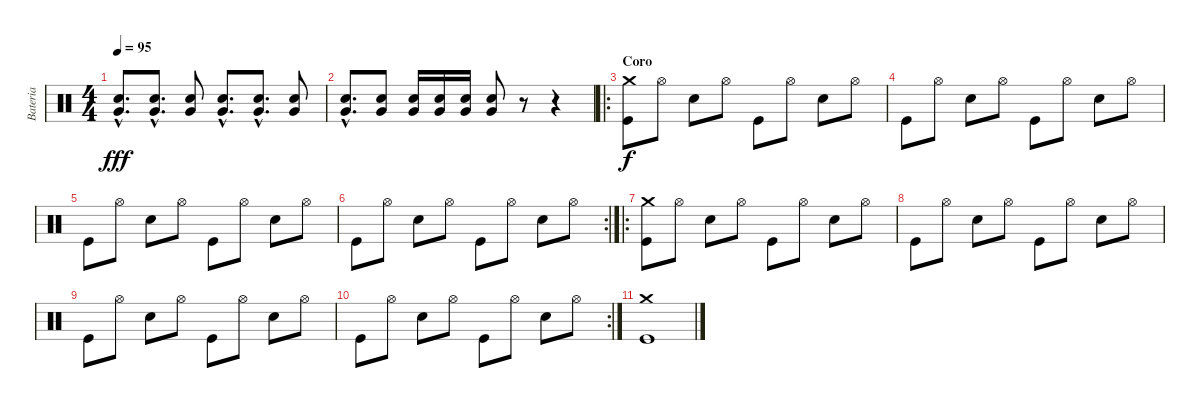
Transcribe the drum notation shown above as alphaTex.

\track ("Bateria" "Bateria") {instrument percussion}
\staff {score}
\articulation defaults
\ts (4 4)
\tempo 95
\clef neutral
\ks c
("Very Low Tom (hit)"{hac} "Electric Snare (hit)"{hac}).8{d dy fff} ("Very Low Tom (hit)"{hac} "Electric Snare (hit)"{hac}).8{d} ("Very Low Tom (hit)" "Electric Snare (hit)").8 ("Very Low Tom (hit)"{hac} "Electric Snare (hit)"{hac}).8{d} ("Very Low Tom (hit)"{hac} "Electric Snare (hit)"{hac}).8{d} ("Very Low Tom (hit)" "Electric Snare (hit)").8 |
("Very Low Tom (hit)"{hac} "Electric Snare (hit)"{hac}).8{d} ("Very Low Tom (hit)" "Electric Snare (hit)").8 ("Very Low Tom (hit)" "Electric Snare (hit)").16 ("Very Low Tom (hit)" "Electric Snare (hit)").16 ("Very Low Tom (hit)" "Electric Snare (hit)").16 ("Very Low Tom (hit)" "Electric Snare (hit)").8 r.8 r.4 |
\ro
\section ("" "Coro")
("Crash medium (hit)" "Kick (hit)").8{dy f} "Hi-Hat (open)".8 "Electric Snare (hit)".8 "Hi-Hat (open)".8 "Kick (hit)".8 "Hi-Hat (open)".8 "Electric Snare (hit)".8 "Hi-Hat (open)".8 |
"Kick (hit)".8 "Hi-Hat (open)".8 "Electric Snare (hit)".8 "Hi-Hat (open)".8 "Kick (hit)".8 "Hi-Hat (open)".8 "Electric Snare (hit)".8 "Hi-Hat (open)".8 |
"Kick (hit)".8 "Hi-Hat (open)".8 "Electric Snare (hit)".8 "Hi-Hat (open)".8 "Kick (hit)".8 "Hi-Hat (open)".8 "Electric Snare (hit)".8 "Hi-Hat (open)".8 |
\rc 2 "Kick (hit)".8 "Hi-Hat (open)".8 "Electric Snare (hit)".8 "Hi-Hat (open)".8 "Kick (hit)".8 "Hi-Hat (open)".8 "Electric Snare (hit)".8 "Hi-Hat (open)".8
|
\ro
("Crash medium (hit)" "Kick (hit)").8 "Hi-Hat (open)".8 "Electric Snare (hit)".8 "Hi-Hat (open)".8 "Kick (hit)".8 "Hi-Hat (open)".8 "Electric Snare (hit)".8 "Hi-Hat (open)".8 |
"Kick (hit)".8 "Hi-Hat (open)".8 "Electric Snare (hit)".8 "Hi-Hat (open)".8 "Kick (hit)".8 "Hi-Hat (open)".8 "Electric Snare (hit)".8 "Hi-Hat (open)".8 |
"Kick (hit)".8 "Hi-Hat (open)".8 "Electric Snare (hit)".8 "Hi-Hat (open)".8 "Kick (hit)".8 "Hi-Hat (open)".8 "Electric Snare (hit)".8 "Hi-Hat (open)".8 |
\rc 2 "Kick (hit)".8 "Hi-Hat (open)".8 "Electric Snare (hit)".8 "Hi-Hat (open)".8 "Kick (hit)".8 "Hi-Hat (open)".8 "Electric Snare (hit)".8 "Hi-Hat (open)".8
|
("Crash medium (hit)" "Kick (hit)").1
